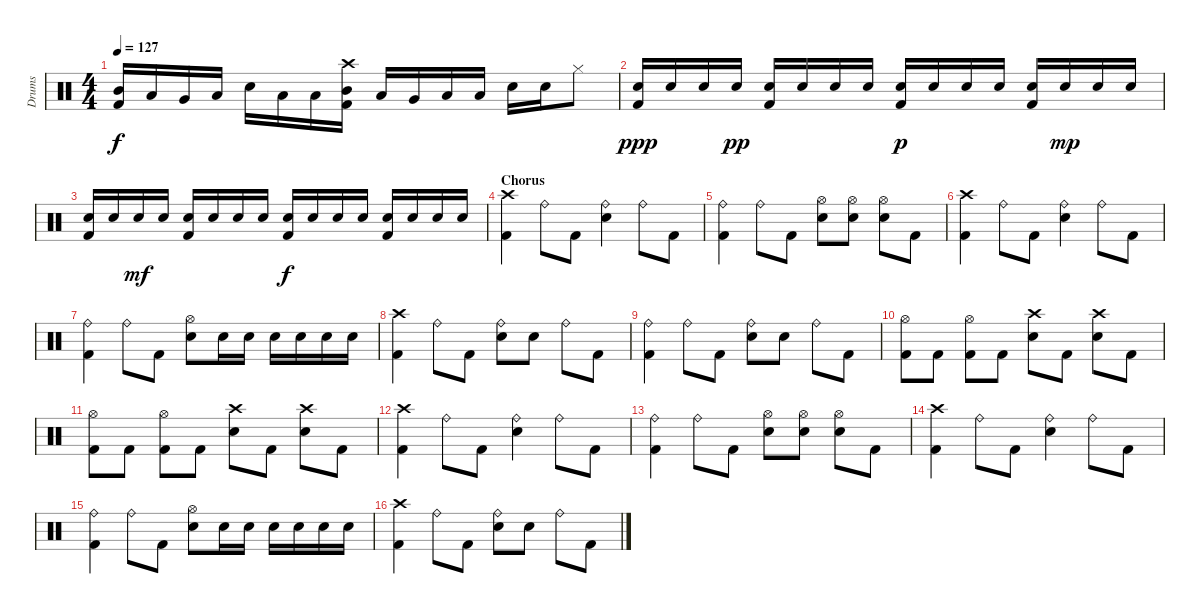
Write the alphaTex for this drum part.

\track ("Drums" "Drums") {instrument percussion}
\staff {score}
\articulation defaults
\ts (4 4)
\tempo 127
\clef neutral
\ks c
("Mid Tom (hit)" "Kick (hit) 2").16{dy f} "Low Tom (hit)".16 "Very Low Tom (hit)".16 "Low Floor Tom (hit)".16 "Snare (hit) 2".16 "Low Floor Tom (hit)".16 "Low Floor Tom (hit)".16 ("Crash high (hit)" "Mid Tom (hit)" "Kick (hit) 2").16 "Low Tom (hit)".16 "Very Low Tom (hit)".16 "Low Floor Tom (hit)".16 "Low Floor Tom (hit)".16 "Snare (hit) 2".16 "Snare (hit) 2".16 "Hi-Hat (closed)".8 |
("Snare (hit) 2" "Kick (hit) 2").16{dy ppp} "Snare (hit) 2".16 "Snare (hit) 2".16 "Snare (hit) 2".16{dy pp} ("Snare (hit) 2" "Kick (hit) 2").16 "Snare (hit) 2".16 "Snare (hit) 2".16 "Snare (hit) 2".16 ("Snare (hit) 2" "Kick (hit) 2").16{dy p} "Snare (hit) 2".16 "Snare (hit) 2".16 "Snare (hit) 2".16 ("Snare (hit) 2" "Kick (hit) 2").16 "Snare (hit) 2".16{dy mp} "Snare (hit) 2".16 "Snare (hit) 2".16 |
("Snare (hit) 2" "Kick (hit) 2").16 "Snare (hit) 2".16 "Snare (hit) 2".16{dy mf} "Snare (hit) 2".16 ("Snare (hit) 2" "Kick (hit) 2").16 "Snare (hit) 2".16 "Snare (hit) 2".16 "Snare (hit) 2".16 ("Snare (hit) 2" "Kick (hit) 2").16{dy f} "Snare (hit) 2".16 "Snare (hit) 2".16 "Snare (hit) 2".16 ("Snare (hit) 2" "Kick (hit) 2").16 "Snare (hit) 2".16 "Snare (hit) 2".16 "Snare (hit) 2".16 |
\section ("" "Chorus")
("Crash high (hit)" "Kick (hit) 2").4 "Ride (bell)".8 "Kick (hit) 2".8 ("Ride (bell)" "Snare (hit) 2").4 "Ride (bell)".8 "Kick (hit) 2".8 |
("Ride (bell)" "Kick (hit) 2").4 "Ride (bell)".8 "Kick (hit) 2".8 ("Hi-Hat (open)" "Snare (hit) 2").8 ("Hi-Hat (open)" "Snare (hit) 2").8 ("Hi-Hat (open)" "Snare (hit) 2").8 "Kick (hit) 2".8 |
("Crash high (hit)" "Kick (hit) 2").4 "Ride (bell)".8 "Kick (hit) 2".8 ("Ride (bell)" "Snare (hit) 2").4 "Ride (bell)".8 "Kick (hit) 2".8 |
("Ride (bell)" "Kick (hit) 2").4 "Ride (bell)".8 "Kick (hit) 2".8 ("Hi-Hat (open)" "Snare (hit) 2").8 "Snare (hit) 2".16 "Snare (hit) 2".16 "Snare (hit) 2".16 "Snare (hit) 2".16 "Snare (hit) 2".16 "Snare (hit) 2".16 |
("Crash high (hit)" "Kick (hit) 2").4 "Ride (bell)".8 "Kick (hit) 2".8 ("Ride (bell)" "Snare (hit) 2").8 "Snare (hit) 2".8 "Ride (bell)".8 "Kick (hit) 2".8 |
("Ride (bell)" "Kick (hit) 2").4 "Ride (bell)".8 "Kick (hit) 2".8 ("Ride (bell)" "Snare (hit) 2").8 "Snare (hit) 2".8 "Ride (bell)".8 "Kick (hit) 2".8 |
("Hi-Hat (open)" "Kick (hit) 2").8 "Kick (hit) 2".8 ("Hi-Hat (open)" "Kick (hit) 2").8 "Kick (hit) 2".8 ("Crash high (hit)" "Snare (hit) 2").8 "Kick (hit) 2".8 ("Crash high (hit)" "Snare (hit) 2").8 "Kick (hit) 2".8 |
("Hi-Hat (open)" "Kick (hit) 2").8 "Kick (hit) 2".8 ("Hi-Hat (open)" "Kick (hit) 2").8 "Kick (hit) 2".8 ("Crash high (hit)" "Snare (hit) 2").8 "Kick (hit) 2".8 ("Crash high (hit)" "Snare (hit) 2").8 "Kick (hit) 2".8 |
("Crash high (hit)" "Kick (hit) 2").4 "Ride (bell)".8 "Kick (hit) 2".8 ("Ride (bell)" "Snare (hit) 2").4 "Ride (bell)".8 "Kick (hit) 2".8 |
("Ride (bell)" "Kick (hit) 2").4 "Ride (bell)".8 "Kick (hit) 2".8 ("Hi-Hat (open)" "Snare (hit) 2").8 ("Hi-Hat (open)" "Snare (hit) 2").8 ("Hi-Hat (open)" "Snare (hit) 2").8 "Kick (hit) 2".8 |
("Crash high (hit)" "Kick (hit) 2").4 "Ride (bell)".8 "Kick (hit) 2".8 ("Ride (bell)" "Snare (hit) 2").4 "Ride (bell)".8 "Kick (hit) 2".8 |
("Ride (bell)" "Kick (hit) 2").4 "Ride (bell)".8 "Kick (hit) 2".8 ("Hi-Hat (open)" "Snare (hit) 2").8 "Snare (hit) 2".16 "Snare (hit) 2".16 "Snare (hit) 2".16 "Snare (hit) 2".16 "Snare (hit) 2".16 "Snare (hit) 2".16 |
("Crash high (hit)" "Kick (hit) 2").4 "Ride (bell)".8 "Kick (hit) 2".8 ("Ride (bell)" "Snare (hit) 2").8 "Snare (hit) 2".8 "Ride (bell)".8 "Kick (hit) 2".8
